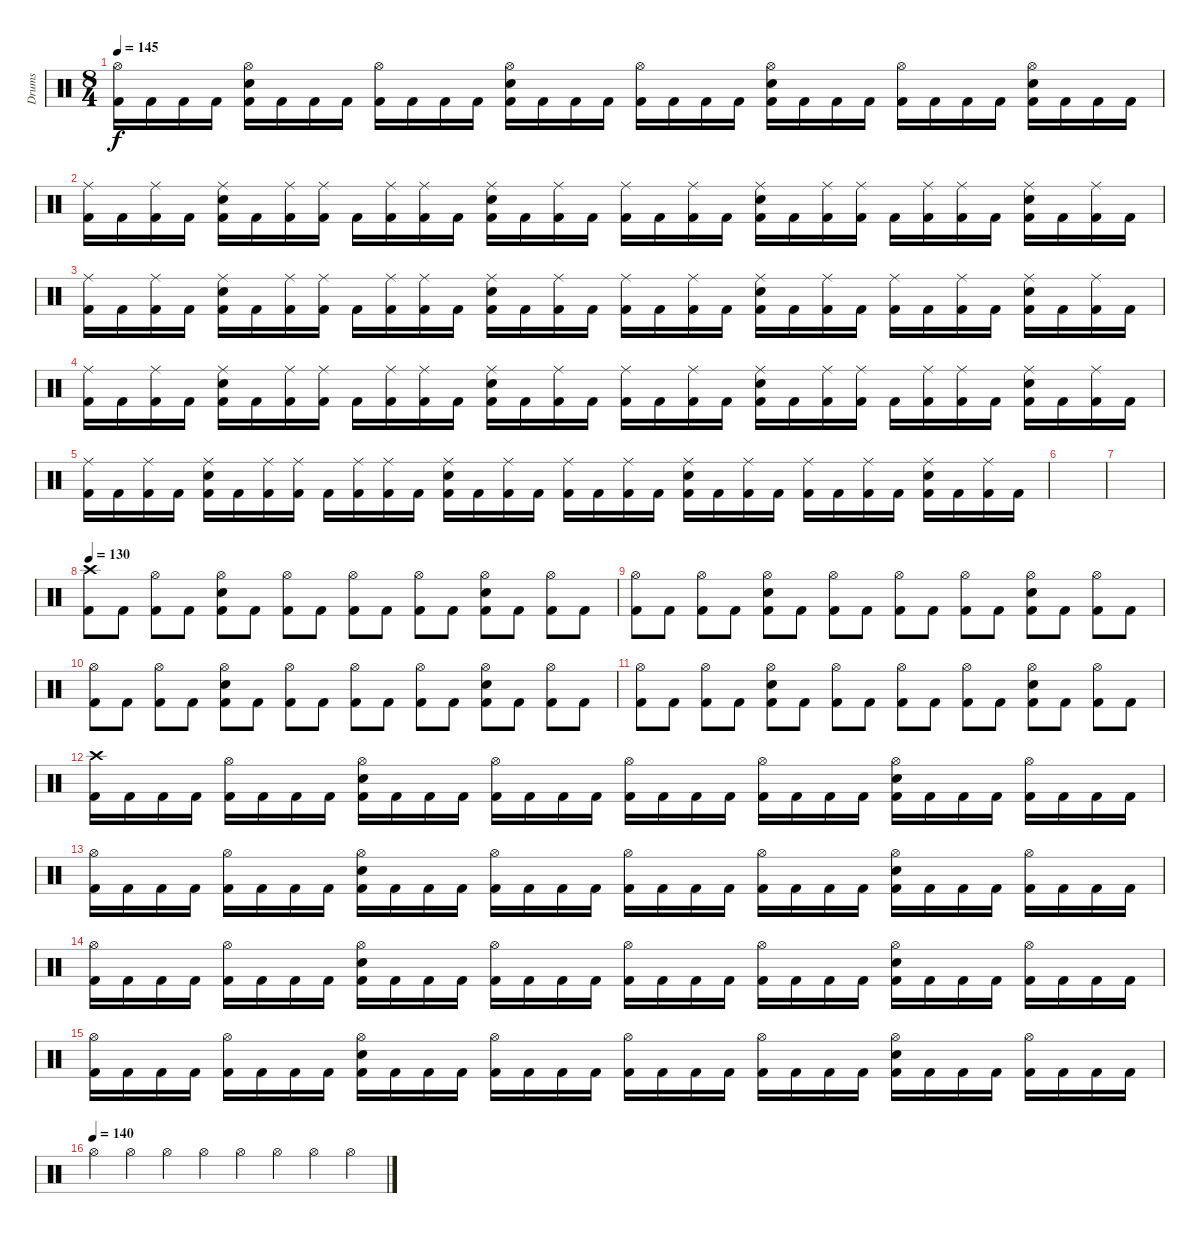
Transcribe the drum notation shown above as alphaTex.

\track ("Drums" "Drums") {instrument percussion}
\staff {score}
\articulation defaults
\ts (8 4)
\tempo 145
\clef neutral
\ks c
("Hi-Hat (open)" "Kick (hit) 2").16{dy f} "Kick (hit) 2".16 "Kick (hit) 2".16 "Kick (hit) 2".16 ("Hi-Hat (open)" "Electric Snare (hit)" "Kick (hit) 2").16 "Kick (hit) 2".16 "Kick (hit) 2".16 "Kick (hit) 2".16 ("Hi-Hat (open)" "Kick (hit) 2").16 "Kick (hit) 2".16 "Kick (hit) 2".16 "Kick (hit) 2".16 ("Hi-Hat (open)" "Electric Snare (hit)" "Kick (hit) 2").16 "Kick (hit) 2".16 "Kick (hit) 2".16 "Kick (hit) 2".16 ("Hi-Hat (open)" "Kick (hit) 2").16 "Kick (hit) 2".16 "Kick (hit) 2".16 "Kick (hit) 2".16 ("Hi-Hat (open)" "Electric Snare (hit)" "Kick (hit) 2").16 "Kick (hit) 2".16 "Kick (hit) 2".16 "Kick (hit) 2".16 ("Hi-Hat (open)" "Kick (hit) 2").16 "Kick (hit) 2".16 "Kick (hit) 2".16 "Kick (hit) 2".16 ("Hi-Hat (open)" "Electric Snare (hit)" "Kick (hit) 2").16 "Kick (hit) 2".16 "Kick (hit) 2".16 "Kick (hit) 2".16 |
("Ride (middle)" "Kick (hit) 2").16 "Kick (hit) 2".16 ("Ride (middle)" "Kick (hit) 2").16 "Kick (hit) 2".16 ("Ride (middle)" "Electric Snare (hit)" "Kick (hit) 2").16 "Kick (hit) 2".16 ("Ride (middle)" "Kick (hit) 2").16 ("Ride (middle)" "Kick (hit) 2").16 "Kick (hit) 2".16 ("Ride (middle)" "Kick (hit) 2").16 ("Ride (middle)" "Kick (hit) 2").16 "Kick (hit) 2".16 ("Ride (middle)" "Electric Snare (hit)" "Kick (hit) 2").16 "Kick (hit) 2".16 ("Ride (middle)" "Kick (hit) 2").16 "Kick (hit) 2".16 ("Ride (middle)" "Kick (hit) 2").16 "Kick (hit) 2".16 ("Ride (middle)" "Kick (hit) 2").16 "Kick (hit) 2".16 ("Ride (middle)" "Electric Snare (hit)" "Kick (hit) 2").16 "Kick (hit) 2".16 ("Ride (middle)" "Kick (hit) 2").16 ("Ride (middle)" "Kick (hit) 2").16 "Kick (hit) 2".16 ("Ride (middle)" "Kick (hit) 2").16 ("Ride (middle)" "Kick (hit) 2").16 "Kick (hit) 2".16 ("Ride (middle)" "Electric Snare (hit)" "Kick (hit) 2").16 "Kick (hit) 2".16 ("Ride (middle)" "Kick (hit) 2").16 "Kick (hit) 2".16 |
("Ride (middle)" "Kick (hit) 2").16 "Kick (hit) 2".16 ("Ride (middle)" "Kick (hit) 2").16 "Kick (hit) 2".16 ("Ride (middle)" "Electric Snare (hit)" "Kick (hit) 2").16 "Kick (hit) 2".16 ("Ride (middle)" "Kick (hit) 2").16 ("Ride (middle)" "Kick (hit) 2").16 "Kick (hit) 2".16 ("Ride (middle)" "Kick (hit) 2").16 ("Ride (middle)" "Kick (hit) 2").16 "Kick (hit) 2".16 ("Ride (middle)" "Electric Snare (hit)" "Kick (hit) 2").16 "Kick (hit) 2".16 ("Ride (middle)" "Kick (hit) 2").16 "Kick (hit) 2".16 ("Ride (middle)" "Kick (hit) 2").16 "Kick (hit) 2".16 ("Ride (middle)" "Kick (hit) 2").16 "Kick (hit) 2".16 ("Ride (middle)" "Electric Snare (hit)" "Kick (hit) 2").16 "Kick (hit) 2".16 ("Ride (middle)" "Kick (hit) 2").16 "Kick (hit) 2".16 ("Ride (middle)" "Kick (hit) 2").16 "Kick (hit) 2".16 ("Ride (middle)" "Kick (hit) 2").16 "Kick (hit) 2".16 ("Ride (middle)" "Electric Snare (hit)" "Kick (hit) 2").16 "Kick (hit) 2".16 ("Ride (middle)" "Kick (hit) 2").16 "Kick (hit) 2".16 |
("Ride (middle)" "Kick (hit) 2").16 "Kick (hit) 2".16 ("Ride (middle)" "Kick (hit) 2").16 "Kick (hit) 2".16 ("Ride (middle)" "Electric Snare (hit)" "Kick (hit) 2").16 "Kick (hit) 2".16 ("Ride (middle)" "Kick (hit) 2").16 ("Ride (middle)" "Kick (hit) 2").16 "Kick (hit) 2".16 ("Ride (middle)" "Kick (hit) 2").16 ("Ride (middle)" "Kick (hit) 2").16 "Kick (hit) 2".16 ("Ride (middle)" "Electric Snare (hit)" "Kick (hit) 2").16 "Kick (hit) 2".16 ("Ride (middle)" "Kick (hit) 2").16 "Kick (hit) 2".16 ("Ride (middle)" "Kick (hit) 2").16 "Kick (hit) 2".16 ("Ride (middle)" "Kick (hit) 2").16 "Kick (hit) 2".16 ("Ride (middle)" "Electric Snare (hit)" "Kick (hit) 2").16 "Kick (hit) 2".16 ("Ride (middle)" "Kick (hit) 2").16 ("Ride (middle)" "Kick (hit) 2").16 "Kick (hit) 2".16 ("Ride (middle)" "Kick (hit) 2").16 ("Ride (middle)" "Kick (hit) 2").16 "Kick (hit) 2".16 ("Ride (middle)" "Electric Snare (hit)" "Kick (hit) 2").16 "Kick (hit) 2".16 ("Ride (middle)" "Kick (hit) 2").16 "Kick (hit) 2".16 |
("Ride (middle)" "Kick (hit) 2").16 "Kick (hit) 2".16 ("Ride (middle)" "Kick (hit) 2").16 "Kick (hit) 2".16 ("Ride (middle)" "Electric Snare (hit)" "Kick (hit) 2").16 "Kick (hit) 2".16 ("Ride (middle)" "Kick (hit) 2").16 ("Ride (middle)" "Kick (hit) 2").16 "Kick (hit) 2".16 ("Ride (middle)" "Kick (hit) 2").16 ("Ride (middle)" "Kick (hit) 2").16 "Kick (hit) 2".16 ("Ride (middle)" "Electric Snare (hit)" "Kick (hit) 2").16 "Kick (hit) 2".16 ("Ride (middle)" "Kick (hit) 2").16 "Kick (hit) 2".16 ("Ride (middle)" "Kick (hit) 2").16 "Kick (hit) 2".16 ("Ride (middle)" "Kick (hit) 2").16 "Kick (hit) 2".16 ("Ride (middle)" "Electric Snare (hit)" "Kick (hit) 2").16 "Kick (hit) 2".16 ("Ride (middle)" "Kick (hit) 2").16 "Kick (hit) 2".16 ("Ride (middle)" "Kick (hit) 2").16 "Kick (hit) 2".16 ("Ride (middle)" "Kick (hit) 2").16 "Kick (hit) 2".16 ("Ride (middle)" "Electric Snare (hit)" "Kick (hit) 2").16 "Kick (hit) 2".16 ("Ride (middle)" "Kick (hit) 2").16 "Kick (hit) 2".16 |
|
|
\tempo 130
("Crash high (hit)" "Kick (hit) 2").8 "Kick (hit) 2".8 ("Hi-Hat (open)" "Kick (hit) 2").8 "Kick (hit) 2".8 ("Hi-Hat (open)" "Electric Snare (hit)" "Kick (hit) 2").8 "Kick (hit) 2".8 ("Hi-Hat (open)" "Kick (hit) 2").8 "Kick (hit) 2".8 ("Hi-Hat (open)" "Kick (hit) 2").8 "Kick (hit) 2".8 ("Hi-Hat (open)" "Kick (hit) 2").8 "Kick (hit) 2".8 ("Hi-Hat (open)" "Electric Snare (hit)" "Kick (hit) 2").8 "Kick (hit) 2".8 ("Hi-Hat (open)" "Kick (hit) 2").8 "Kick (hit) 2".8 |
("Hi-Hat (open)" "Kick (hit) 2").8 "Kick (hit) 2".8 ("Hi-Hat (open)" "Kick (hit) 2").8 "Kick (hit) 2".8 ("Hi-Hat (open)" "Electric Snare (hit)" "Kick (hit) 2").8 "Kick (hit) 2".8 ("Hi-Hat (open)" "Kick (hit) 2").8 "Kick (hit) 2".8 ("Hi-Hat (open)" "Kick (hit) 2").8 "Kick (hit) 2".8 ("Hi-Hat (open)" "Kick (hit) 2").8 "Kick (hit) 2".8 ("Hi-Hat (open)" "Electric Snare (hit)" "Kick (hit) 2").8 "Kick (hit) 2".8 ("Hi-Hat (open)" "Kick (hit) 2").8 "Kick (hit) 2".8 |
("Hi-Hat (open)" "Kick (hit) 2").8 "Kick (hit) 2".8 ("Hi-Hat (open)" "Kick (hit) 2").8 "Kick (hit) 2".8 ("Hi-Hat (open)" "Electric Snare (hit)" "Kick (hit) 2").8 "Kick (hit) 2".8 ("Hi-Hat (open)" "Kick (hit) 2").8 "Kick (hit) 2".8 ("Hi-Hat (open)" "Kick (hit) 2").8 "Kick (hit) 2".8 ("Hi-Hat (open)" "Kick (hit) 2").8 "Kick (hit) 2".8 ("Hi-Hat (open)" "Electric Snare (hit)" "Kick (hit) 2").8 "Kick (hit) 2".8 ("Hi-Hat (open)" "Kick (hit) 2").8 "Kick (hit) 2".8 |
("Hi-Hat (open)" "Kick (hit) 2").8 "Kick (hit) 2".8 ("Hi-Hat (open)" "Kick (hit) 2").8 "Kick (hit) 2".8 ("Hi-Hat (open)" "Electric Snare (hit)" "Kick (hit) 2").8 "Kick (hit) 2".8 ("Hi-Hat (open)" "Kick (hit) 2").8 "Kick (hit) 2".8 ("Hi-Hat (open)" "Kick (hit) 2").8 "Kick (hit) 2".8 ("Hi-Hat (open)" "Kick (hit) 2").8 "Kick (hit) 2".8 ("Hi-Hat (open)" "Electric Snare (hit)" "Kick (hit) 2").8 "Kick (hit) 2".8 ("Hi-Hat (open)" "Kick (hit) 2").8 "Kick (hit) 2".8 |
("Crash high (hit)" "Kick (hit) 2").16 "Kick (hit) 2".16 "Kick (hit) 2".16 "Kick (hit) 2".16 ("Hi-Hat (open)" "Kick (hit) 2").16 "Kick (hit) 2".16 "Kick (hit) 2".16 "Kick (hit) 2".16 ("Hi-Hat (open)" "Electric Snare (hit)" "Kick (hit) 2").16 "Kick (hit) 2".16 "Kick (hit) 2".16 "Kick (hit) 2".16 ("Hi-Hat (open)" "Kick (hit) 2").16 "Kick (hit) 2".16 "Kick (hit) 2".16 "Kick (hit) 2".16 ("Hi-Hat (open)" "Kick (hit) 2").16 "Kick (hit) 2".16 "Kick (hit) 2".16 "Kick (hit) 2".16 ("Hi-Hat (open)" "Kick (hit) 2").16 "Kick (hit) 2".16 "Kick (hit) 2".16 "Kick (hit) 2".16 ("Hi-Hat (open)" "Electric Snare (hit)" "Kick (hit) 2").16 "Kick (hit) 2".16 "Kick (hit) 2".16 "Kick (hit) 2".16 ("Hi-Hat (open)" "Kick (hit) 2").16 "Kick (hit) 2".16 "Kick (hit) 2".16 "Kick (hit) 2".16 |
("Hi-Hat (open)" "Kick (hit) 2").16 "Kick (hit) 2".16 "Kick (hit) 2".16 "Kick (hit) 2".16 ("Hi-Hat (open)" "Kick (hit) 2").16 "Kick (hit) 2".16 "Kick (hit) 2".16 "Kick (hit) 2".16 ("Hi-Hat (open)" "Electric Snare (hit)" "Kick (hit) 2").16 "Kick (hit) 2".16 "Kick (hit) 2".16 "Kick (hit) 2".16 ("Hi-Hat (open)" "Kick (hit) 2").16 "Kick (hit) 2".16 "Kick (hit) 2".16 "Kick (hit) 2".16 ("Hi-Hat (open)" "Kick (hit) 2").16 "Kick (hit) 2".16 "Kick (hit) 2".16 "Kick (hit) 2".16 ("Hi-Hat (open)" "Kick (hit) 2").16 "Kick (hit) 2".16 "Kick (hit) 2".16 "Kick (hit) 2".16 ("Hi-Hat (open)" "Electric Snare (hit)" "Kick (hit) 2").16 "Kick (hit) 2".16 "Kick (hit) 2".16 "Kick (hit) 2".16 ("Hi-Hat (open)" "Kick (hit) 2").16 "Kick (hit) 2".16 "Kick (hit) 2".16 "Kick (hit) 2".16 |
("Hi-Hat (open)" "Kick (hit) 2").16 "Kick (hit) 2".16 "Kick (hit) 2".16 "Kick (hit) 2".16 ("Hi-Hat (open)" "Kick (hit) 2").16 "Kick (hit) 2".16 "Kick (hit) 2".16 "Kick (hit) 2".16 ("Hi-Hat (open)" "Electric Snare (hit)" "Kick (hit) 2").16 "Kick (hit) 2".16 "Kick (hit) 2".16 "Kick (hit) 2".16 ("Hi-Hat (open)" "Kick (hit) 2").16 "Kick (hit) 2".16 "Kick (hit) 2".16 "Kick (hit) 2".16 ("Hi-Hat (open)" "Kick (hit) 2").16 "Kick (hit) 2".16 "Kick (hit) 2".16 "Kick (hit) 2".16 ("Hi-Hat (open)" "Kick (hit) 2").16 "Kick (hit) 2".16 "Kick (hit) 2".16 "Kick (hit) 2".16 ("Hi-Hat (open)" "Electric Snare (hit)" "Kick (hit) 2").16 "Kick (hit) 2".16 "Kick (hit) 2".16 "Kick (hit) 2".16 ("Hi-Hat (open)" "Kick (hit) 2").16 "Kick (hit) 2".16 "Kick (hit) 2".16 "Kick (hit) 2".16 |
("Hi-Hat (open)" "Kick (hit) 2").16 "Kick (hit) 2".16 "Kick (hit) 2".16 "Kick (hit) 2".16 ("Hi-Hat (open)" "Kick (hit) 2").16 "Kick (hit) 2".16 "Kick (hit) 2".16 "Kick (hit) 2".16 ("Hi-Hat (open)" "Electric Snare (hit)" "Kick (hit) 2").16 "Kick (hit) 2".16 "Kick (hit) 2".16 "Kick (hit) 2".16 ("Hi-Hat (open)" "Kick (hit) 2").16 "Kick (hit) 2".16 "Kick (hit) 2".16 "Kick (hit) 2".16 ("Hi-Hat (open)" "Kick (hit) 2").16 "Kick (hit) 2".16 "Kick (hit) 2".16 "Kick (hit) 2".16 ("Hi-Hat (open)" "Kick (hit) 2").16 "Kick (hit) 2".16 "Kick (hit) 2".16 "Kick (hit) 2".16 ("Hi-Hat (open)" "Electric Snare (hit)" "Kick (hit) 2").16 "Kick (hit) 2".16 "Kick (hit) 2".16 "Kick (hit) 2".16 ("Hi-Hat (open)" "Kick (hit) 2").16 "Kick (hit) 2".16 "Kick (hit) 2".16 "Kick (hit) 2".16 |
\tempo (140)
"Hi-Hat (open)".4 "Hi-Hat (open)".4 "Hi-Hat (open)".4 "Hi-Hat (open)".4 "Hi-Hat (open)".4 "Hi-Hat (open)".4 "Hi-Hat (open)".4 "Hi-Hat (open)".4
